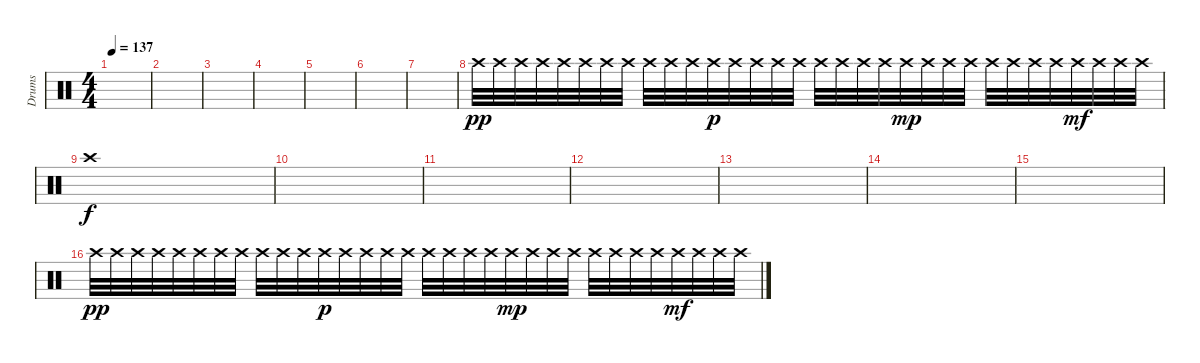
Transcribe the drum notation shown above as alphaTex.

\track ("Drums" "Drums") {instrument percussion}
\staff {score}
\articulation defaults
\ts (4 4)
\tempo 137
\clef neutral
\ks c
|
|
|
|
|
|
|
"Crash high (hit)".32{dy pp} "Crash high (hit)".32 "Crash high (hit)".32 "Crash high (hit)".32 "Crash high (hit)".32 "Crash high (hit)".32 "Crash high (hit)".32 "Crash high (hit)".32 "Crash high (hit)".32 "Crash high (hit)".32 "Crash high (hit)".32 "Crash high (hit)".32{dy p} "Crash high (hit)".32 "Crash high (hit)".32 "Crash high (hit)".32 "Crash high (hit)".32 "Crash high (hit)".32 "Crash high (hit)".32 "Crash high (hit)".32 "Crash high (hit)".32 "Crash high (hit)".32{dy mp} "Crash high (hit)".32 "Crash high (hit)".32 "Crash high (hit)".32 "Crash high (hit)".32 "Crash high (hit)".32 "Crash high (hit)".32 "Crash high (hit)".32 "Crash high (hit)".32{dy mf} "Crash high (hit)".32 "Crash high (hit)".32 "Crash high (hit)".32 |
"Crash high (hit)".1{dy f} |
|
|
|
|
|
|
"Crash high (hit)".32{dy pp} "Crash high (hit)".32 "Crash high (hit)".32 "Crash high (hit)".32 "Crash high (hit)".32 "Crash high (hit)".32 "Crash high (hit)".32 "Crash high (hit)".32 "Crash high (hit)".32 "Crash high (hit)".32 "Crash high (hit)".32 "Crash high (hit)".32{dy p} "Crash high (hit)".32 "Crash high (hit)".32 "Crash high (hit)".32 "Crash high (hit)".32 "Crash high (hit)".32 "Crash high (hit)".32 "Crash high (hit)".32 "Crash high (hit)".32 "Crash high (hit)".32{dy mp} "Crash high (hit)".32 "Crash high (hit)".32 "Crash high (hit)".32 "Crash high (hit)".32 "Crash high (hit)".32 "Crash high (hit)".32 "Crash high (hit)".32 "Crash high (hit)".32{dy mf} "Crash high (hit)".32 "Crash high (hit)".32 "Crash high (hit)".32
